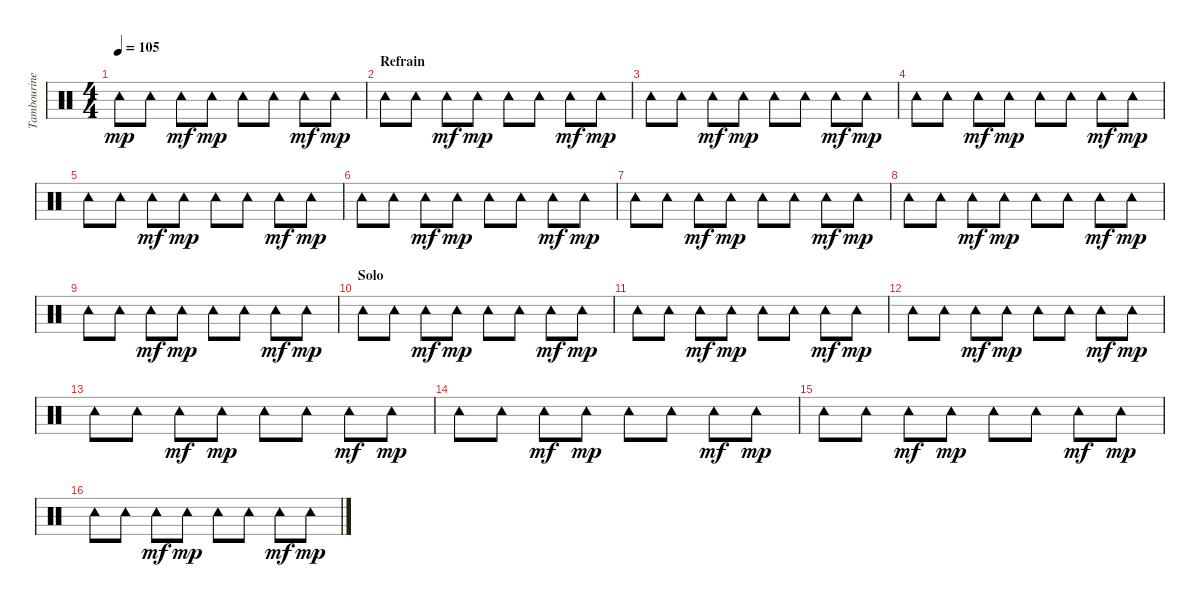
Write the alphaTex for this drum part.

\track ("Tambourine" "Tambourine") {instrument percussion}
\staff {score}
\articulation defaults
\ts (4 4)
\tempo 105
\clef neutral
\ks c "Tambourine (hit)".8{dy mp} "Tambourine (hit)".8 "Tambourine (hit)".8{dy mf} "Tambourine (hit)".8{dy mp} "Tambourine (hit)".8 "Tambourine (hit)".8 "Tambourine (hit)".8{dy mf} "Tambourine (hit)".8{dy mp}
|
\section ("" "Refrain")
"Tambourine (hit)".8 "Tambourine (hit)".8 "Tambourine (hit)".8{dy mf} "Tambourine (hit)".8{dy mp} "Tambourine (hit)".8 "Tambourine (hit)".8 "Tambourine (hit)".8{dy mf} "Tambourine (hit)".8{dy mp} |
"Tambourine (hit)".8 "Tambourine (hit)".8 "Tambourine (hit)".8{dy mf} "Tambourine (hit)".8{dy mp} "Tambourine (hit)".8 "Tambourine (hit)".8 "Tambourine (hit)".8{dy mf} "Tambourine (hit)".8{dy mp} |
"Tambourine (hit)".8 "Tambourine (hit)".8 "Tambourine (hit)".8{dy mf} "Tambourine (hit)".8{dy mp} "Tambourine (hit)".8 "Tambourine (hit)".8 "Tambourine (hit)".8{dy mf} "Tambourine (hit)".8{dy mp} |
"Tambourine (hit)".8 "Tambourine (hit)".8 "Tambourine (hit)".8{dy mf} "Tambourine (hit)".8{dy mp} "Tambourine (hit)".8 "Tambourine (hit)".8 "Tambourine (hit)".8{dy mf} "Tambourine (hit)".8{dy mp} |
"Tambourine (hit)".8 "Tambourine (hit)".8 "Tambourine (hit)".8{dy mf} "Tambourine (hit)".8{dy mp} "Tambourine (hit)".8 "Tambourine (hit)".8 "Tambourine (hit)".8{dy mf} "Tambourine (hit)".8{dy mp} |
"Tambourine (hit)".8 "Tambourine (hit)".8 "Tambourine (hit)".8{dy mf} "Tambourine (hit)".8{dy mp} "Tambourine (hit)".8 "Tambourine (hit)".8 "Tambourine (hit)".8{dy mf} "Tambourine (hit)".8{dy mp} |
"Tambourine (hit)".8 "Tambourine (hit)".8 "Tambourine (hit)".8{dy mf} "Tambourine (hit)".8{dy mp} "Tambourine (hit)".8 "Tambourine (hit)".8 "Tambourine (hit)".8{dy mf} "Tambourine (hit)".8{dy mp} |
"Tambourine (hit)".8 "Tambourine (hit)".8 "Tambourine (hit)".8{dy mf} "Tambourine (hit)".8{dy mp} "Tambourine (hit)".8 "Tambourine (hit)".8 "Tambourine (hit)".8{dy mf} "Tambourine (hit)".8{dy mp} |
\section ("" "Solo")
"Tambourine (hit)".8 "Tambourine (hit)".8 "Tambourine (hit)".8{dy mf} "Tambourine (hit)".8{dy mp} "Tambourine (hit)".8 "Tambourine (hit)".8 "Tambourine (hit)".8{dy mf} "Tambourine (hit)".8{dy mp} |
"Tambourine (hit)".8 "Tambourine (hit)".8 "Tambourine (hit)".8{dy mf} "Tambourine (hit)".8{dy mp} "Tambourine (hit)".8 "Tambourine (hit)".8 "Tambourine (hit)".8{dy mf} "Tambourine (hit)".8{dy mp} |
"Tambourine (hit)".8 "Tambourine (hit)".8 "Tambourine (hit)".8{dy mf} "Tambourine (hit)".8{dy mp} "Tambourine (hit)".8 "Tambourine (hit)".8 "Tambourine (hit)".8{dy mf} "Tambourine (hit)".8{dy mp} |
"Tambourine (hit)".8 "Tambourine (hit)".8 "Tambourine (hit)".8{dy mf} "Tambourine (hit)".8{dy mp} "Tambourine (hit)".8 "Tambourine (hit)".8 "Tambourine (hit)".8{dy mf} "Tambourine (hit)".8{dy mp} |
"Tambourine (hit)".8 "Tambourine (hit)".8 "Tambourine (hit)".8{dy mf} "Tambourine (hit)".8{dy mp} "Tambourine (hit)".8 "Tambourine (hit)".8 "Tambourine (hit)".8{dy mf} "Tambourine (hit)".8{dy mp} |
"Tambourine (hit)".8 "Tambourine (hit)".8 "Tambourine (hit)".8{dy mf} "Tambourine (hit)".8{dy mp} "Tambourine (hit)".8 "Tambourine (hit)".8 "Tambourine (hit)".8{dy mf} "Tambourine (hit)".8{dy mp} |
"Tambourine (hit)".8 "Tambourine (hit)".8 "Tambourine (hit)".8{dy mf} "Tambourine (hit)".8{dy mp} "Tambourine (hit)".8 "Tambourine (hit)".8 "Tambourine (hit)".8{dy mf} "Tambourine (hit)".8{dy mp}
